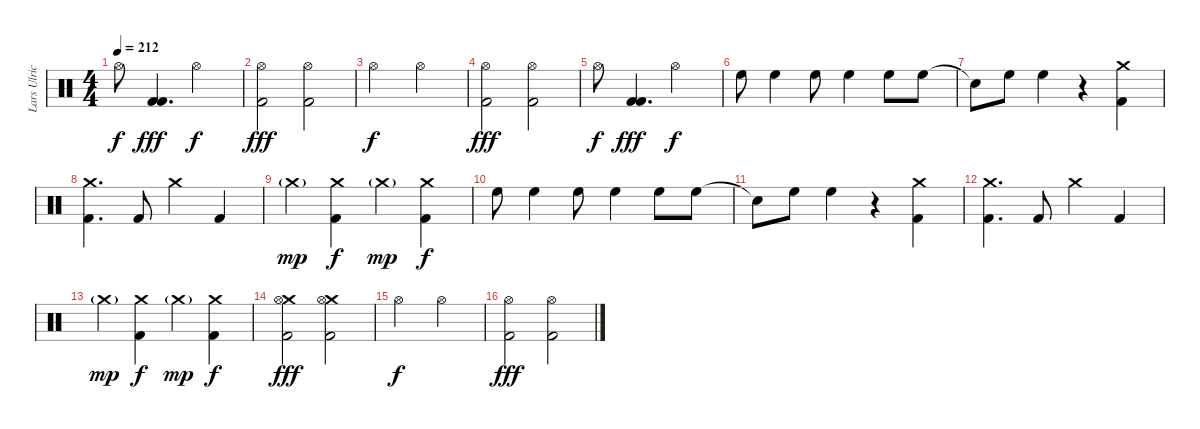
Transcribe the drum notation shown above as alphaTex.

\track ("Lars Ulrich" "Lars Ulric") {instrument percussion}
\staff {score}
\articulation defaults
\ts (4 4)
\tempo 212
\clef neutral
\ks c "Hi-Hat (open)".8{dy f}
("Kick (hit) 2" "Kick (hit) 2").4{d dy fff} "Hi-Hat (open)".2{dy f} |
("Hi-Hat (open)" "Kick (hit) 2").2{dy fff} ("Hi-Hat (open)" "Kick (hit) 2").2 |
"Hi-Hat (open)".2{dy f} "Hi-Hat (open)".2 |
("Hi-Hat (open)" "Kick (hit) 2").2{dy fff} ("Hi-Hat (open)" "Kick (hit) 2").2 |
"Hi-Hat (open)".8{dy f} ("Kick (hit) 2" "Kick (hit) 2").4{d dy fff} "Hi-Hat (open)".2{dy f} |
"High Floor Tom (hit)".8 "High Floor Tom (hit)".4 "High Floor Tom (hit)".8 "High Floor Tom (hit)".4 "High Floor Tom (hit)".8 "High Floor Tom (hit)".8 |
"Snare (hit)"{t}.8 "High Floor Tom (hit)".8 "High Floor Tom (hit)".4 r.4 ("Crash medium (hit)" "Kick (hit) 2").4 |
("Crash medium (hit)" "Kick (hit) 2").4{d} "Kick (hit) 2".8 "Crash medium (hit)".4 "Kick (hit) 2".4 |
"Crash medium (hit)"{g}.4{dy mp} ("Crash medium (hit)" "Kick (hit) 2").4{dy f} "Crash medium (hit)"{g}.4{dy mp} ("Crash medium (hit)" "Kick (hit) 2").4{dy f} |
"High Floor Tom (hit)".8 "High Floor Tom (hit)".4 "High Floor Tom (hit)".8 "High Floor Tom (hit)".4 "High Floor Tom (hit)".8 "High Floor Tom (hit)".8 |
"Snare (hit)"{t}.8 "High Floor Tom (hit)".8 "High Floor Tom (hit)".4 r.4 ("Crash medium (hit)" "Kick (hit) 2").4 |
("Crash medium (hit)" "Kick (hit) 2").4{d} "Kick (hit) 2".8 "Crash medium (hit)".4 "Kick (hit) 2".4 |
"Crash medium (hit)"{g}.4{dy mp} ("Crash medium (hit)" "Kick (hit) 2").4{dy f} "Crash medium (hit)"{g}.4{dy mp} ("Crash medium (hit)" "Kick (hit) 2").4{dy f} |
("Crash medium (hit)" "Hi-Hat (open)" "Kick (hit) 2").2{dy fff} ("Crash medium (hit)" "Hi-Hat (open)" "Kick (hit) 2").2 |
"Hi-Hat (open)".2{dy f} "Hi-Hat (open)".2 |
("Hi-Hat (open)" "Kick (hit) 2").2{dy fff} ("Hi-Hat (open)" "Kick (hit) 2").2
